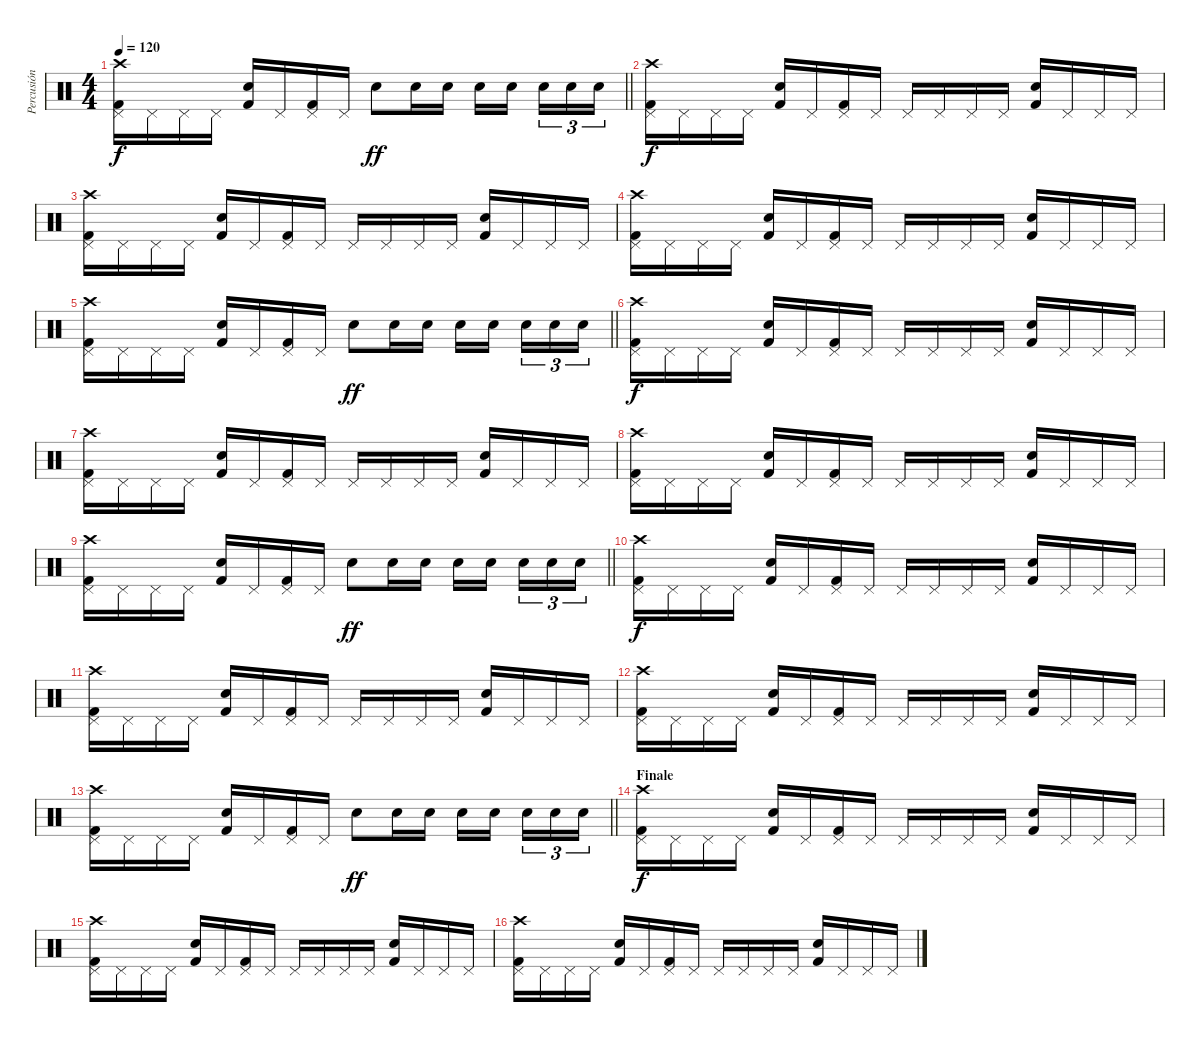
\track ("Percusión" "Percusión") {instrument percussion}
\staff {score}
\articulation defaults
\ts (4 4)
\tempo 120
\clef neutral
\barLineRight lightlight
\ks c
("Pedal Hi-Hat (hit)" "Kick (hit) 2" "Crash high (hit)").16{dy f} "Pedal Hi-Hat (hit)".16 "Pedal Hi-Hat (hit)".16 "Pedal Hi-Hat (hit)".16 ("Snare (hit) 2" "Kick (hit) 2").16 "Pedal Hi-Hat (hit)".16 ("Pedal Hi-Hat (hit)" "Kick (hit) 2").16 "Pedal Hi-Hat (hit)".16 "Snare (hit) 2".8{dy ff} "Snare (hit) 2".16 "Snare (hit) 2".16 "Snare (hit) 2".16 "Snare (hit) 2".16{beam splitsecondary} "Snare (hit) 2".16{tu (3 2)} "Snare (hit) 2".16{tu (3 2)} "Snare (hit) 2".16{tu (3 2)} |
("Pedal Hi-Hat (hit)" "Kick (hit) 2" "Crash high (hit)").16{dy f} "Pedal Hi-Hat (hit)".16 "Pedal Hi-Hat (hit)".16 "Pedal Hi-Hat (hit)".16 ("Snare (hit) 2" "Kick (hit) 2").16 "Pedal Hi-Hat (hit)".16 ("Pedal Hi-Hat (hit)" "Kick (hit) 2").16 "Pedal Hi-Hat (hit)".16 "Pedal Hi-Hat (hit)".16 "Pedal Hi-Hat (hit)".16 "Pedal Hi-Hat (hit)".16 "Pedal Hi-Hat (hit)".16 ("Snare (hit) 2" "Kick (hit) 2").16 "Pedal Hi-Hat (hit)".16 "Pedal Hi-Hat (hit)".16 "Pedal Hi-Hat (hit)".16 |
("Pedal Hi-Hat (hit)" "Kick (hit) 2" "Crash high (hit)").16 "Pedal Hi-Hat (hit)".16 "Pedal Hi-Hat (hit)".16 "Pedal Hi-Hat (hit)".16 ("Snare (hit) 2" "Kick (hit) 2").16 "Pedal Hi-Hat (hit)".16 ("Pedal Hi-Hat (hit)" "Kick (hit) 2").16 "Pedal Hi-Hat (hit)".16 "Pedal Hi-Hat (hit)".16 "Pedal Hi-Hat (hit)".16 "Pedal Hi-Hat (hit)".16 "Pedal Hi-Hat (hit)".16 ("Snare (hit) 2" "Kick (hit) 2").16 "Pedal Hi-Hat (hit)".16 "Pedal Hi-Hat (hit)".16 "Pedal Hi-Hat (hit)".16 |
("Pedal Hi-Hat (hit)" "Kick (hit) 2" "Crash high (hit)").16 "Pedal Hi-Hat (hit)".16 "Pedal Hi-Hat (hit)".16 "Pedal Hi-Hat (hit)".16 ("Snare (hit) 2" "Kick (hit) 2").16 "Pedal Hi-Hat (hit)".16 ("Pedal Hi-Hat (hit)" "Kick (hit) 2").16 "Pedal Hi-Hat (hit)".16 "Pedal Hi-Hat (hit)".16 "Pedal Hi-Hat (hit)".16 "Pedal Hi-Hat (hit)".16 "Pedal Hi-Hat (hit)".16 ("Snare (hit) 2" "Kick (hit) 2").16 "Pedal Hi-Hat (hit)".16 "Pedal Hi-Hat (hit)".16 "Pedal Hi-Hat (hit)".16 |
\barLineRight lightlight
("Pedal Hi-Hat (hit)" "Kick (hit) 2" "Crash high (hit)").16 "Pedal Hi-Hat (hit)".16 "Pedal Hi-Hat (hit)".16 "Pedal Hi-Hat (hit)".16 ("Snare (hit) 2" "Kick (hit) 2").16 "Pedal Hi-Hat (hit)".16 ("Pedal Hi-Hat (hit)" "Kick (hit) 2").16 "Pedal Hi-Hat (hit)".16 "Snare (hit) 2".8{dy ff} "Snare (hit) 2".16 "Snare (hit) 2".16 "Snare (hit) 2".16 "Snare (hit) 2".16{beam splitsecondary} "Snare (hit) 2".16{tu (3 2)} "Snare (hit) 2".16{tu (3 2)} "Snare (hit) 2".16{tu (3 2)} |
("Pedal Hi-Hat (hit)" "Kick (hit) 2" "Crash high (hit)").16{dy f} "Pedal Hi-Hat (hit)".16 "Pedal Hi-Hat (hit)".16 "Pedal Hi-Hat (hit)".16 ("Snare (hit) 2" "Kick (hit) 2").16 "Pedal Hi-Hat (hit)".16 ("Pedal Hi-Hat (hit)" "Kick (hit) 2").16 "Pedal Hi-Hat (hit)".16 "Pedal Hi-Hat (hit)".16 "Pedal Hi-Hat (hit)".16 "Pedal Hi-Hat (hit)".16 "Pedal Hi-Hat (hit)".16 ("Snare (hit) 2" "Kick (hit) 2").16 "Pedal Hi-Hat (hit)".16 "Pedal Hi-Hat (hit)".16 "Pedal Hi-Hat (hit)".16 |
("Pedal Hi-Hat (hit)" "Kick (hit) 2" "Crash high (hit)").16 "Pedal Hi-Hat (hit)".16 "Pedal Hi-Hat (hit)".16 "Pedal Hi-Hat (hit)".16 ("Snare (hit) 2" "Kick (hit) 2").16 "Pedal Hi-Hat (hit)".16 ("Pedal Hi-Hat (hit)" "Kick (hit) 2").16 "Pedal Hi-Hat (hit)".16 "Pedal Hi-Hat (hit)".16 "Pedal Hi-Hat (hit)".16 "Pedal Hi-Hat (hit)".16 "Pedal Hi-Hat (hit)".16 ("Snare (hit) 2" "Kick (hit) 2").16 "Pedal Hi-Hat (hit)".16 "Pedal Hi-Hat (hit)".16 "Pedal Hi-Hat (hit)".16 |
("Pedal Hi-Hat (hit)" "Kick (hit) 2" "Crash high (hit)").16 "Pedal Hi-Hat (hit)".16 "Pedal Hi-Hat (hit)".16 "Pedal Hi-Hat (hit)".16 ("Snare (hit) 2" "Kick (hit) 2").16 "Pedal Hi-Hat (hit)".16 ("Pedal Hi-Hat (hit)" "Kick (hit) 2").16 "Pedal Hi-Hat (hit)".16 "Pedal Hi-Hat (hit)".16 "Pedal Hi-Hat (hit)".16 "Pedal Hi-Hat (hit)".16 "Pedal Hi-Hat (hit)".16 ("Snare (hit) 2" "Kick (hit) 2").16 "Pedal Hi-Hat (hit)".16 "Pedal Hi-Hat (hit)".16 "Pedal Hi-Hat (hit)".16 |
\barLineRight lightlight
("Pedal Hi-Hat (hit)" "Kick (hit) 2" "Crash high (hit)").16 "Pedal Hi-Hat (hit)".16 "Pedal Hi-Hat (hit)".16 "Pedal Hi-Hat (hit)".16 ("Snare (hit) 2" "Kick (hit) 2").16 "Pedal Hi-Hat (hit)".16 ("Pedal Hi-Hat (hit)" "Kick (hit) 2").16 "Pedal Hi-Hat (hit)".16 "Snare (hit) 2".8{dy ff} "Snare (hit) 2".16 "Snare (hit) 2".16 "Snare (hit) 2".16 "Snare (hit) 2".16{beam splitsecondary} "Snare (hit) 2".16{tu (3 2)} "Snare (hit) 2".16{tu (3 2)} "Snare (hit) 2".16{tu (3 2)} |
("Pedal Hi-Hat (hit)" "Kick (hit) 2" "Crash high (hit)").16{dy f} "Pedal Hi-Hat (hit)".16 "Pedal Hi-Hat (hit)".16 "Pedal Hi-Hat (hit)".16 ("Snare (hit) 2" "Kick (hit) 2").16 "Pedal Hi-Hat (hit)".16 ("Pedal Hi-Hat (hit)" "Kick (hit) 2").16 "Pedal Hi-Hat (hit)".16 "Pedal Hi-Hat (hit)".16 "Pedal Hi-Hat (hit)".16 "Pedal Hi-Hat (hit)".16 "Pedal Hi-Hat (hit)".16 ("Snare (hit) 2" "Kick (hit) 2").16 "Pedal Hi-Hat (hit)".16 "Pedal Hi-Hat (hit)".16 "Pedal Hi-Hat (hit)".16 |
("Pedal Hi-Hat (hit)" "Kick (hit) 2" "Crash high (hit)").16 "Pedal Hi-Hat (hit)".16 "Pedal Hi-Hat (hit)".16 "Pedal Hi-Hat (hit)".16 ("Snare (hit) 2" "Kick (hit) 2").16 "Pedal Hi-Hat (hit)".16 ("Pedal Hi-Hat (hit)" "Kick (hit) 2").16 "Pedal Hi-Hat (hit)".16 "Pedal Hi-Hat (hit)".16 "Pedal Hi-Hat (hit)".16 "Pedal Hi-Hat (hit)".16 "Pedal Hi-Hat (hit)".16 ("Snare (hit) 2" "Kick (hit) 2").16 "Pedal Hi-Hat (hit)".16 "Pedal Hi-Hat (hit)".16 "Pedal Hi-Hat (hit)".16 |
("Pedal Hi-Hat (hit)" "Kick (hit) 2" "Crash high (hit)").16 "Pedal Hi-Hat (hit)".16 "Pedal Hi-Hat (hit)".16 "Pedal Hi-Hat (hit)".16 ("Snare (hit) 2" "Kick (hit) 2").16 "Pedal Hi-Hat (hit)".16 ("Pedal Hi-Hat (hit)" "Kick (hit) 2").16 "Pedal Hi-Hat (hit)".16 "Pedal Hi-Hat (hit)".16 "Pedal Hi-Hat (hit)".16 "Pedal Hi-Hat (hit)".16 "Pedal Hi-Hat (hit)".16 ("Snare (hit) 2" "Kick (hit) 2").16 "Pedal Hi-Hat (hit)".16 "Pedal Hi-Hat (hit)".16 "Pedal Hi-Hat (hit)".16 |
\barLineRight lightlight
("Pedal Hi-Hat (hit)" "Kick (hit) 2" "Crash high (hit)").16 "Pedal Hi-Hat (hit)".16 "Pedal Hi-Hat (hit)".16 "Pedal Hi-Hat (hit)".16 ("Snare (hit) 2" "Kick (hit) 2").16 "Pedal Hi-Hat (hit)".16 ("Pedal Hi-Hat (hit)" "Kick (hit) 2").16 "Pedal Hi-Hat (hit)".16 "Snare (hit) 2".8{dy ff} "Snare (hit) 2".16 "Snare (hit) 2".16 "Snare (hit) 2".16 "Snare (hit) 2".16{beam splitsecondary} "Snare (hit) 2".16{tu (3 2)} "Snare (hit) 2".16{tu (3 2)} "Snare (hit) 2".16{tu (3 2)} |
\section ("" "Finale")
("Pedal Hi-Hat (hit)" "Kick (hit) 2" "Crash high (hit)").16{dy f} "Pedal Hi-Hat (hit)".16 "Pedal Hi-Hat (hit)".16 "Pedal Hi-Hat (hit)".16 ("Snare (hit) 2" "Kick (hit) 2").16 "Pedal Hi-Hat (hit)".16 ("Pedal Hi-Hat (hit)" "Kick (hit) 2").16 "Pedal Hi-Hat (hit)".16 "Pedal Hi-Hat (hit)".16 "Pedal Hi-Hat (hit)".16 "Pedal Hi-Hat (hit)".16 "Pedal Hi-Hat (hit)".16 ("Snare (hit) 2" "Kick (hit) 2").16 "Pedal Hi-Hat (hit)".16 "Pedal Hi-Hat (hit)".16 "Pedal Hi-Hat (hit)".16 |
("Pedal Hi-Hat (hit)" "Kick (hit) 2" "Crash high (hit)").16 "Pedal Hi-Hat (hit)".16 "Pedal Hi-Hat (hit)".16 "Pedal Hi-Hat (hit)".16 ("Snare (hit) 2" "Kick (hit) 2").16 "Pedal Hi-Hat (hit)".16 ("Pedal Hi-Hat (hit)" "Kick (hit) 2").16 "Pedal Hi-Hat (hit)".16 "Pedal Hi-Hat (hit)".16 "Pedal Hi-Hat (hit)".16 "Pedal Hi-Hat (hit)".16 "Pedal Hi-Hat (hit)".16 ("Snare (hit) 2" "Kick (hit) 2").16 "Pedal Hi-Hat (hit)".16 "Pedal Hi-Hat (hit)".16 "Pedal Hi-Hat (hit)".16 |
("Pedal Hi-Hat (hit)" "Kick (hit) 2" "Crash high (hit)").16 "Pedal Hi-Hat (hit)".16 "Pedal Hi-Hat (hit)".16 "Pedal Hi-Hat (hit)".16 ("Snare (hit) 2" "Kick (hit) 2").16 "Pedal Hi-Hat (hit)".16 ("Pedal Hi-Hat (hit)" "Kick (hit) 2").16 "Pedal Hi-Hat (hit)".16 "Pedal Hi-Hat (hit)".16 "Pedal Hi-Hat (hit)".16 "Pedal Hi-Hat (hit)".16 "Pedal Hi-Hat (hit)".16 ("Snare (hit) 2" "Kick (hit) 2").16 "Pedal Hi-Hat (hit)".16 "Pedal Hi-Hat (hit)".16 "Pedal Hi-Hat (hit)".16
